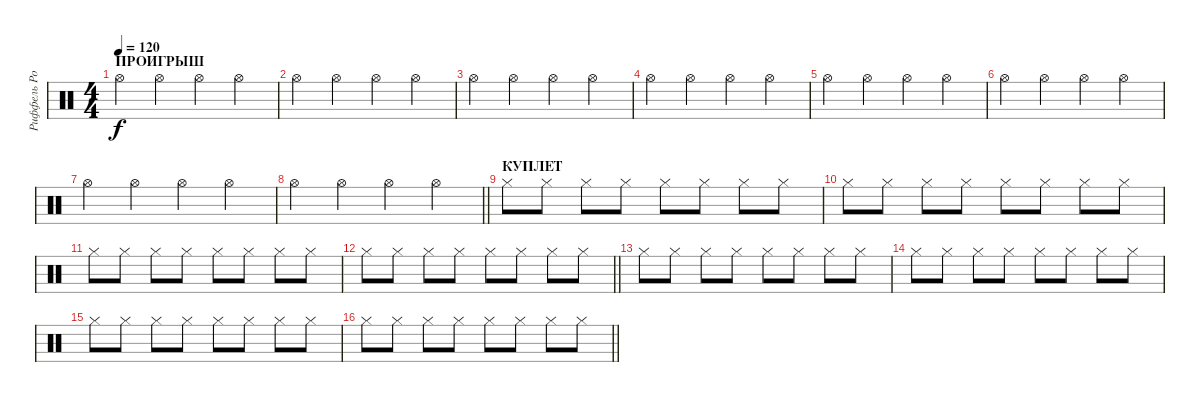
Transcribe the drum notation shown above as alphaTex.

\track ("Риффель Роман(хэты)" "Риффель Ро") {instrument percussion}
\staff {score}
\articulation defaults
\ts (4 4)
\section ("" "ПРОИГРЫШ")
\tempo 120
\clef neutral
\ks c "Hi-Hat (open)".4{dy f} "Hi-Hat (open)".4 "Hi-Hat (open)".4 "Hi-Hat (open)".4
|
"Hi-Hat (open)".4 "Hi-Hat (open)".4 "Hi-Hat (open)".4 "Hi-Hat (open)".4 |
"Hi-Hat (open)".4 "Hi-Hat (open)".4 "Hi-Hat (open)".4 "Hi-Hat (open)".4 |
"Hi-Hat (open)".4 "Hi-Hat (open)".4 "Hi-Hat (open)".4 "Hi-Hat (open)".4 |
"Hi-Hat (open)".4 "Hi-Hat (open)".4 "Hi-Hat (open)".4 "Hi-Hat (open)".4 |
"Hi-Hat (open)".4 "Hi-Hat (open)".4 "Hi-Hat (open)".4 "Hi-Hat (open)".4 |
"Hi-Hat (open)".4 "Hi-Hat (open)".4 "Hi-Hat (open)".4 "Hi-Hat (open)".4 |
\barLineRight lightlight "Hi-Hat (open)".4 "Hi-Hat (open)".4 "Hi-Hat (open)".4 "Hi-Hat (open)".4
|
\section ("" "КУПЛЕТ")
"Hi-Hat (closed)".8 "Hi-Hat (closed)".8 "Hi-Hat (closed)".8 "Hi-Hat (closed)".8 "Hi-Hat (closed)".8 "Hi-Hat (closed)".8 "Hi-Hat (closed)".8 "Hi-Hat (closed)".8 |
"Hi-Hat (closed)".8 "Hi-Hat (closed)".8 "Hi-Hat (closed)".8 "Hi-Hat (closed)".8 "Hi-Hat (closed)".8 "Hi-Hat (closed)".8 "Hi-Hat (closed)".8 "Hi-Hat (closed)".8 |
"Hi-Hat (closed)".8 "Hi-Hat (closed)".8 "Hi-Hat (closed)".8 "Hi-Hat (closed)".8 "Hi-Hat (closed)".8 "Hi-Hat (closed)".8 "Hi-Hat (closed)".8 "Hi-Hat (closed)".8 |
\barLineRight lightlight "Hi-Hat (closed)".8 "Hi-Hat (closed)".8 "Hi-Hat (closed)".8 "Hi-Hat (closed)".8 "Hi-Hat (closed)".8 "Hi-Hat (closed)".8 "Hi-Hat (closed)".8 "Hi-Hat (closed)".8
|
"Hi-Hat (closed)".8 "Hi-Hat (closed)".8 "Hi-Hat (closed)".8 "Hi-Hat (closed)".8 "Hi-Hat (closed)".8 "Hi-Hat (closed)".8 "Hi-Hat (closed)".8 "Hi-Hat (closed)".8 |
"Hi-Hat (closed)".8 "Hi-Hat (closed)".8 "Hi-Hat (closed)".8 "Hi-Hat (closed)".8 "Hi-Hat (closed)".8 "Hi-Hat (closed)".8 "Hi-Hat (closed)".8 "Hi-Hat (closed)".8 |
"Hi-Hat (closed)".8 "Hi-Hat (closed)".8 "Hi-Hat (closed)".8 "Hi-Hat (closed)".8 "Hi-Hat (closed)".8 "Hi-Hat (closed)".8 "Hi-Hat (closed)".8 "Hi-Hat (closed)".8 |
\barLineRight lightlight "Hi-Hat (closed)".8 "Hi-Hat (closed)".8 "Hi-Hat (closed)".8 "Hi-Hat (closed)".8 "Hi-Hat (closed)".8 "Hi-Hat (closed)".8 "Hi-Hat (closed)".8 "Hi-Hat (closed)".8
